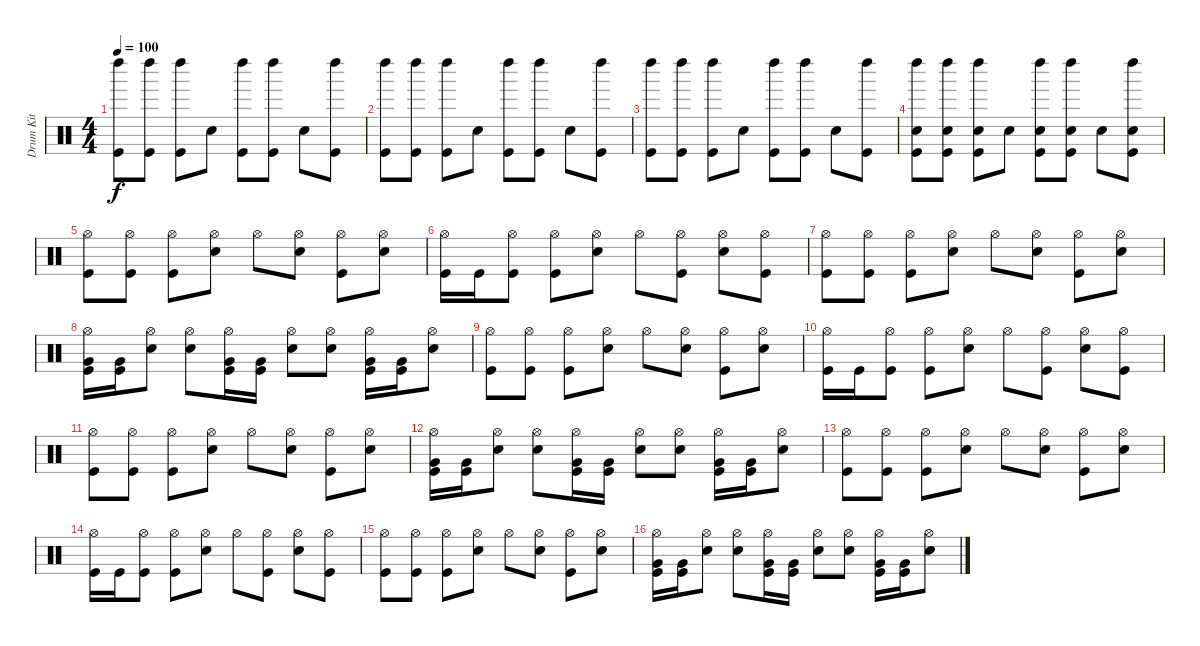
\track ("Drum Kit" "Drum Kit") {instrument percussion}
\staff {score}
\articulation defaults
\ts (4 4)
\tempo 100
\clef neutral
\ks c
("Left Maraca (hit)" "Kick (hit)").8{dy f} ("Left Maraca (hit)" "Kick (hit)").8 ("Left Maraca (hit)" "Kick (hit)").8 "Snare (hit) 2".8 ("Left Maraca (hit)" "Kick (hit)").8 ("Left Maraca (hit)" "Kick (hit)").8 "Snare (hit) 2".8 ("Left Maraca (hit)" "Kick (hit)").8 |
("Left Maraca (hit)" "Kick (hit)").8 ("Left Maraca (hit)" "Kick (hit)").8 ("Left Maraca (hit)" "Kick (hit)").8 "Snare (hit) 2".8 ("Left Maraca (hit)" "Kick (hit)").8 ("Left Maraca (hit)" "Kick (hit)").8 "Snare (hit) 2".8 ("Left Maraca (hit)" "Kick (hit)").8 |
("Left Maraca (hit)" "Kick (hit)").8 ("Left Maraca (hit)" "Kick (hit)").8 ("Left Maraca (hit)" "Kick (hit)").8 "Snare (hit) 2".8 ("Left Maraca (hit)" "Kick (hit)").8 ("Left Maraca (hit)" "Kick (hit)").8 "Snare (hit) 2".8 ("Left Maraca (hit)" "Kick (hit)").8 |
("Left Maraca (hit)" "Snare (hit) 2" "Kick (hit)").8 ("Left Maraca (hit)" "Snare (hit) 2" "Kick (hit)").8 ("Left Maraca (hit)" "Snare (hit) 2" "Kick (hit)").8 "Snare (hit) 2".8 ("Left Maraca (hit)" "Snare (hit) 2" "Kick (hit)").8 ("Left Maraca (hit)" "Snare (hit) 2" "Kick (hit)").8 "Snare (hit) 2".8 ("Left Maraca (hit)" "Snare (hit) 2" "Kick (hit)").8 |
("Hi-Hat (open)" "Kick (hit)").8 ("Hi-Hat (open)" "Kick (hit)").8 ("Hi-Hat (open)" "Kick (hit)").8 ("Hi-Hat (open)" "Snare (hit) 2").8 "Hi-Hat (open)".8 ("Hi-Hat (open)" "Snare (hit) 2").8 ("Hi-Hat (open)" "Kick (hit)").8 ("Hi-Hat (open)" "Snare (hit) 2").8 |
("Hi-Hat (open)" "Kick (hit)").16 "Kick (hit)".16 ("Hi-Hat (open)" "Kick (hit)").8 ("Hi-Hat (open)" "Kick (hit)").8 ("Hi-Hat (open)" "Snare (hit) 2").8 "Hi-Hat (open)".8 ("Hi-Hat (open)" "Kick (hit)").8 ("Hi-Hat (open)" "Snare (hit) 2").8 ("Hi-Hat (open)" "Kick (hit)").8 |
("Hi-Hat (open)" "Kick (hit)").8 ("Hi-Hat (open)" "Kick (hit)").8 ("Hi-Hat (open)" "Kick (hit)").8 ("Hi-Hat (open)" "Snare (hit) 2").8 "Hi-Hat (open)".8 ("Hi-Hat (open)" "Snare (hit) 2").8 ("Hi-Hat (open)" "Kick (hit)").8 ("Hi-Hat (open)" "Snare (hit) 2").8 |
("Hi-Hat (open)" "Very Low Tom (hit)" "Kick (hit)").16 ("Very Low Tom (hit)" "Kick (hit)").16 ("Hi-Hat (open)" "Snare (hit) 2").8 ("Hi-Hat (open)" "Snare (hit) 2").8 ("Hi-Hat (open)" "Very Low Tom (hit)" "Kick (hit)").16 ("Very Low Tom (hit)" "Kick (hit)").16 ("Hi-Hat (open)" "Snare (hit) 2").8 ("Hi-Hat (open)" "Snare (hit) 2").8 ("Hi-Hat (open)" "Very Low Tom (hit)" "Kick (hit)").16 ("Very Low Tom (hit)" "Kick (hit)").16 ("Hi-Hat (open)" "Snare (hit) 2").8 |
("Hi-Hat (open)" "Kick (hit)").8 ("Hi-Hat (open)" "Kick (hit)").8 ("Hi-Hat (open)" "Kick (hit)").8 ("Hi-Hat (open)" "Snare (hit) 2").8 "Hi-Hat (open)".8 ("Hi-Hat (open)" "Snare (hit) 2").8 ("Hi-Hat (open)" "Kick (hit)").8 ("Hi-Hat (open)" "Snare (hit) 2").8 |
("Hi-Hat (open)" "Kick (hit)").16 "Kick (hit)".16 ("Hi-Hat (open)" "Kick (hit)").8 ("Hi-Hat (open)" "Kick (hit)").8 ("Hi-Hat (open)" "Snare (hit) 2").8 "Hi-Hat (open)".8 ("Hi-Hat (open)" "Kick (hit)").8 ("Hi-Hat (open)" "Snare (hit) 2").8 ("Hi-Hat (open)" "Kick (hit)").8 |
("Hi-Hat (open)" "Kick (hit)").8 ("Hi-Hat (open)" "Kick (hit)").8 ("Hi-Hat (open)" "Kick (hit)").8 ("Hi-Hat (open)" "Snare (hit) 2").8 "Hi-Hat (open)".8 ("Hi-Hat (open)" "Snare (hit) 2").8 ("Hi-Hat (open)" "Kick (hit)").8 ("Hi-Hat (open)" "Snare (hit) 2").8 |
("Hi-Hat (open)" "Very Low Tom (hit)" "Kick (hit)").16 ("Very Low Tom (hit)" "Kick (hit)").16 ("Hi-Hat (open)" "Snare (hit) 2").8 ("Hi-Hat (open)" "Snare (hit) 2").8 ("Hi-Hat (open)" "Very Low Tom (hit)" "Kick (hit)").16 ("Very Low Tom (hit)" "Kick (hit)").16 ("Hi-Hat (open)" "Snare (hit) 2").8 ("Hi-Hat (open)" "Snare (hit) 2").8 ("Hi-Hat (open)" "Very Low Tom (hit)" "Kick (hit)").16 ("Very Low Tom (hit)" "Kick (hit)").16 ("Hi-Hat (open)" "Snare (hit) 2").8 |
("Hi-Hat (open)" "Kick (hit)").8 ("Hi-Hat (open)" "Kick (hit)").8 ("Hi-Hat (open)" "Kick (hit)").8 ("Hi-Hat (open)" "Snare (hit) 2").8 "Hi-Hat (open)".8 ("Hi-Hat (open)" "Snare (hit) 2").8 ("Hi-Hat (open)" "Kick (hit)").8 ("Hi-Hat (open)" "Snare (hit) 2").8 |
("Hi-Hat (open)" "Kick (hit)").16 "Kick (hit)".16 ("Hi-Hat (open)" "Kick (hit)").8 ("Hi-Hat (open)" "Kick (hit)").8 ("Hi-Hat (open)" "Snare (hit) 2").8 "Hi-Hat (open)".8 ("Hi-Hat (open)" "Kick (hit)").8 ("Hi-Hat (open)" "Snare (hit) 2").8 ("Hi-Hat (open)" "Kick (hit)").8 |
("Hi-Hat (open)" "Kick (hit)").8 ("Hi-Hat (open)" "Kick (hit)").8 ("Hi-Hat (open)" "Kick (hit)").8 ("Hi-Hat (open)" "Snare (hit) 2").8 "Hi-Hat (open)".8 ("Hi-Hat (open)" "Snare (hit) 2").8 ("Hi-Hat (open)" "Kick (hit)").8 ("Hi-Hat (open)" "Snare (hit) 2").8 |
("Hi-Hat (open)" "Very Low Tom (hit)" "Kick (hit)").16 ("Very Low Tom (hit)" "Kick (hit)").16 ("Hi-Hat (open)" "Snare (hit) 2").8 ("Hi-Hat (open)" "Snare (hit) 2").8 ("Hi-Hat (open)" "Very Low Tom (hit)" "Kick (hit)").16 ("Very Low Tom (hit)" "Kick (hit)").16 ("Hi-Hat (open)" "Snare (hit) 2").8 ("Hi-Hat (open)" "Snare (hit) 2").8 ("Hi-Hat (open)" "Very Low Tom (hit)" "Kick (hit)").16 ("Very Low Tom (hit)" "Kick (hit)").16 ("Hi-Hat (open)" "Snare (hit) 2").8
